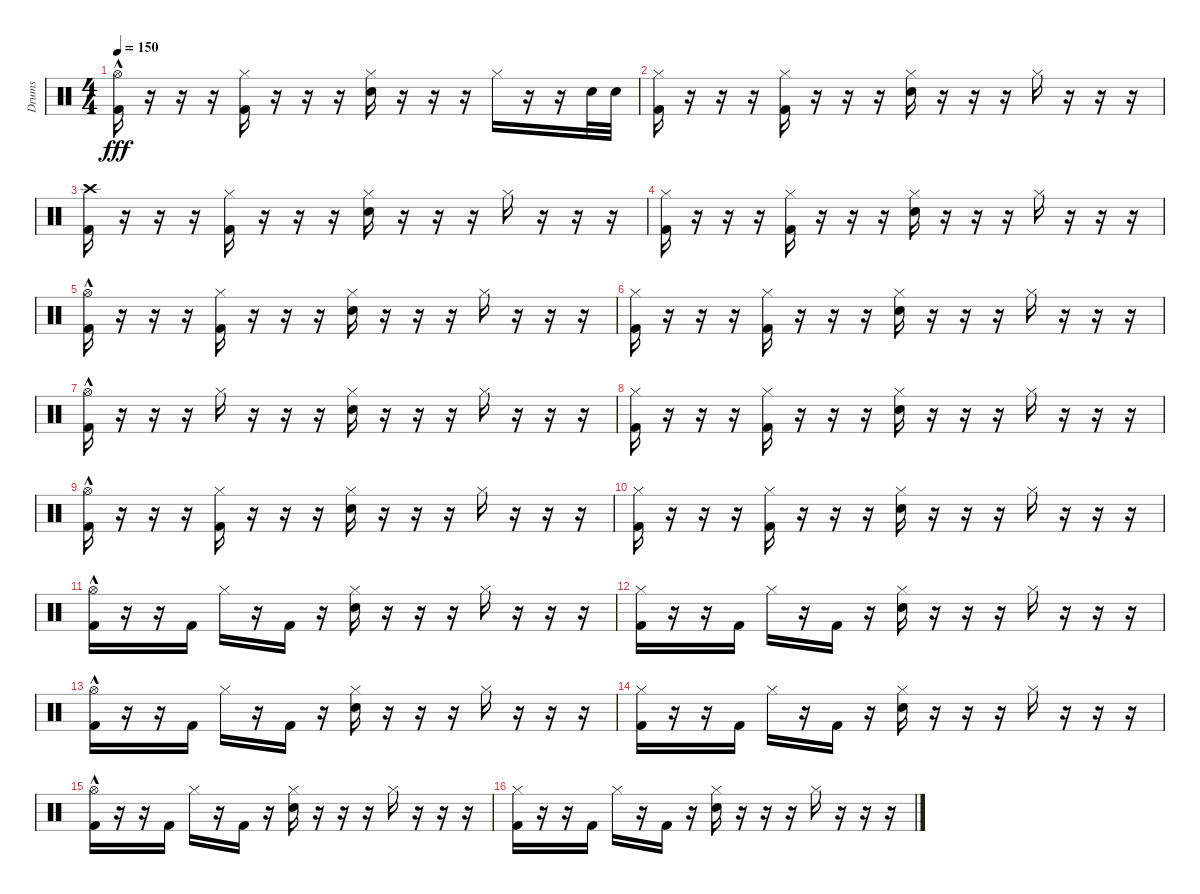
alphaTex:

\track ("Drums" "Drums") {instrument percussion}
\staff {score}
\articulation defaults
\ts (4 4)
\tempo 150
\clef neutral
\ks c
("Hi-Hat (open)"{hac} "Kick (hit) 2").16{dy fff} r.16 r.16 r.16 ("Hi-Hat (closed)" "Kick (hit) 2").16 r.16 r.16 r.16 ("Hi-Hat (closed)" "Electric Snare (hit)").16 r.16 r.16 r.16 "Hi-Hat (closed)".16 r.16 r.16 "Electric Snare (hit)".32 "Electric Snare (hit)".32 |
("Hi-Hat (closed)" "Kick (hit) 2").16 r.16 r.16 r.16 ("Hi-Hat (closed)" "Kick (hit) 2").16 r.16 r.16 r.16 ("Hi-Hat (closed)" "Electric Snare (hit)").16 r.16 r.16 r.16 "Hi-Hat (closed)".16 r.16 r.16 r.16 |
("Crash high (hit)" "Kick (hit) 2").16 r.16 r.16 r.16 ("Hi-Hat (closed)" "Kick (hit) 2").16 r.16 r.16 r.16 ("Hi-Hat (closed)" "Electric Snare (hit)").16 r.16 r.16 r.16 "Hi-Hat (closed)".16 r.16 r.16 r.16 |
("Hi-Hat (closed)" "Kick (hit) 2").16 r.16 r.16 r.16 ("Hi-Hat (closed)" "Kick (hit) 2").16 r.16 r.16 r.16 ("Hi-Hat (closed)" "Electric Snare (hit)").16 r.16 r.16 r.16 "Hi-Hat (closed)".16 r.16 r.16 r.16 |
("Hi-Hat (open)"{hac} "Kick (hit) 2").16 r.16 r.16 r.16 ("Hi-Hat (closed)" "Kick (hit) 2").16 r.16 r.16 r.16 ("Hi-Hat (closed)" "Electric Snare (hit)").16 r.16 r.16 r.16 "Hi-Hat (closed)".16 r.16 r.16 r.16 |
("Hi-Hat (closed)" "Kick (hit) 2").16 r.16 r.16 r.16 ("Hi-Hat (closed)" "Kick (hit) 2").16 r.16 r.16 r.16 ("Hi-Hat (closed)" "Electric Snare (hit)").16 r.16 r.16 r.16 "Hi-Hat (closed)".16 r.16 r.16 r.16 |
("Hi-Hat (open)"{hac} "Kick (hit) 2").16 r.16 r.16 r.16 "Hi-Hat (closed)".16 r.16 r.16 r.16 ("Hi-Hat (closed)" "Electric Snare (hit)").16 r.16 r.16 r.16 "Hi-Hat (closed)".16 r.16 r.16 r.16 |
("Hi-Hat (closed)" "Kick (hit) 2").16 r.16 r.16 r.16 ("Hi-Hat (closed)" "Kick (hit) 2").16 r.16 r.16 r.16 ("Hi-Hat (closed)" "Electric Snare (hit)").16 r.16 r.16 r.16 "Hi-Hat (closed)".16 r.16 r.16 r.16 |
("Hi-Hat (open)"{hac} "Kick (hit) 2").16 r.16 r.16 r.16 ("Hi-Hat (closed)" "Kick (hit) 2").16 r.16 r.16 r.16 ("Hi-Hat (closed)" "Electric Snare (hit)").16 r.16 r.16 r.16 "Hi-Hat (closed)".16 r.16 r.16 r.16 |
("Hi-Hat (closed)" "Kick (hit) 2").16 r.16 r.16 r.16 ("Hi-Hat (closed)" "Kick (hit) 2").16 r.16 r.16 r.16 ("Hi-Hat (closed)" "Electric Snare (hit)").16 r.16 r.16 r.16 "Hi-Hat (closed)".16 r.16 r.16 r.16 |
("Hi-Hat (open)"{hac} "Kick (hit) 2").16 r.16 r.16 "Kick (hit) 2".16 "Hi-Hat (closed)".16 r.16 "Kick (hit) 2".16 r.16 ("Hi-Hat (closed)" "Electric Snare (hit)").16 r.16 r.16 r.16 "Hi-Hat (closed)".16 r.16 r.16 r.16 |
("Hi-Hat (closed)" "Kick (hit) 2").16 r.16 r.16 "Kick (hit) 2".16 "Hi-Hat (closed)".16 r.16 "Kick (hit) 2".16 r.16 ("Hi-Hat (closed)" "Electric Snare (hit)").16 r.16 r.16 r.16 "Hi-Hat (closed)".16 r.16 r.16 r.16 |
("Hi-Hat (open)"{hac} "Kick (hit) 2").16 r.16 r.16 "Kick (hit) 2".16 "Hi-Hat (closed)".16 r.16 "Kick (hit) 2".16 r.16 ("Hi-Hat (closed)" "Electric Snare (hit)").16 r.16 r.16 r.16 "Hi-Hat (closed)".16 r.16 r.16 r.16 |
("Hi-Hat (closed)" "Kick (hit) 2").16 r.16 r.16 "Kick (hit) 2".16 "Hi-Hat (closed)".16 r.16 "Kick (hit) 2".16 r.16 ("Hi-Hat (closed)" "Electric Snare (hit)").16 r.16 r.16 r.16 "Hi-Hat (closed)".16 r.16 r.16 r.16 |
("Hi-Hat (open)"{hac} "Kick (hit) 2").16 r.16 r.16 "Kick (hit) 2".16 "Hi-Hat (closed)".16 r.16 "Kick (hit) 2".16 r.16 ("Hi-Hat (closed)" "Electric Snare (hit)").16 r.16 r.16 r.16 "Hi-Hat (closed)".16 r.16 r.16 r.16 |
("Hi-Hat (closed)" "Kick (hit) 2").16 r.16 r.16 "Kick (hit) 2".16 "Hi-Hat (closed)".16 r.16 "Kick (hit) 2".16 r.16 ("Hi-Hat (closed)" "Electric Snare (hit)").16 r.16 r.16 r.16 "Hi-Hat (closed)".16 r.16 r.16 r.16
